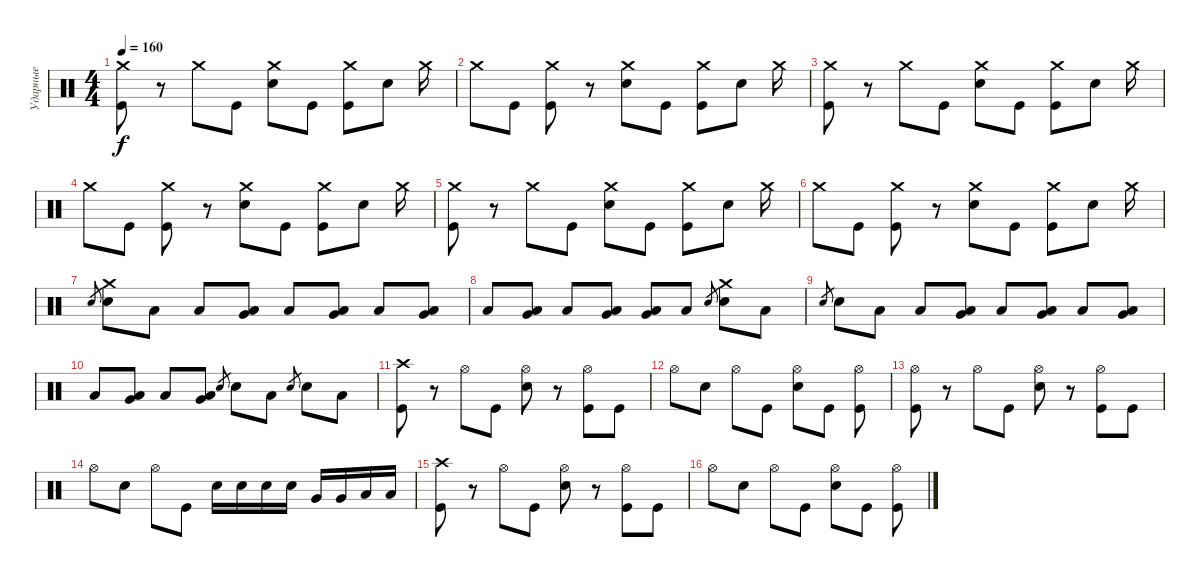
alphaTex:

\track ("Ударные" "Ударные") {instrument percussion}
\staff {score}
\articulation defaults
\ts (4 4)
\tempo 160
\clef neutral
\ks c
("Crash medium (hit)" "Kick (hit)").8{dy f} r.8 "Crash medium (hit)".8 "Kick (hit)".8 ("Crash medium (hit)" "Electric Snare (hit)").8 "Kick (hit)".8 ("Crash medium (hit)" "Kick (hit)").8 "Electric Snare (hit)".8 "Crash medium (hit)".16 |
"Crash medium (hit)".8 "Kick (hit)".8 ("Crash medium (hit)" "Kick (hit)").8 r.8 ("Crash medium (hit)" "Electric Snare (hit)").8 "Kick (hit)".8 ("Crash medium (hit)" "Kick (hit)").8 "Electric Snare (hit)".8 "Crash medium (hit)".16 |
("Crash medium (hit)" "Kick (hit)").8 r.8 "Crash medium (hit)".8 "Kick (hit)".8 ("Crash medium (hit)" "Electric Snare (hit)").8 "Kick (hit)".8 ("Crash medium (hit)" "Kick (hit)").8 "Electric Snare (hit)".8 "Crash medium (hit)".16 |
"Crash medium (hit)".8 "Kick (hit)".8 ("Crash medium (hit)" "Kick (hit)").8 r.8 ("Crash medium (hit)" "Electric Snare (hit)").8 "Kick (hit)".8 ("Crash medium (hit)" "Kick (hit)").8 "Electric Snare (hit)".8 "Crash medium (hit)".16 |
("Crash medium (hit)" "Kick (hit)").8 r.8 "Crash medium (hit)".8 "Kick (hit)".8 ("Crash medium (hit)" "Electric Snare (hit)").8 "Kick (hit)".8 ("Crash medium (hit)" "Kick (hit)").8 "Electric Snare (hit)".8 "Crash medium (hit)".16 |
"Crash medium (hit)".8 "Kick (hit)".8 ("Crash medium (hit)" "Kick (hit)").8 r.8 ("Crash medium (hit)" "Electric Snare (hit)").8 "Kick (hit)".8 ("Crash medium (hit)" "Kick (hit)").8 "Electric Snare (hit)".8 "Crash medium (hit)".16 |
"Electric Snare (hit)".8{gr} ("Crash medium (hit)" "Electric Snare (hit)").8 "Low Floor Tom (hit)".8 "Low Floor Tom (hit)".8 ("Very Low Tom (hit)" "Low Floor Tom (hit)").8 "Low Floor Tom (hit)".8 ("Very Low Tom (hit)" "Low Floor Tom (hit)").8 "Low Floor Tom (hit)".8 ("Very Low Tom (hit)" "Low Floor Tom (hit)").8 |
"Low Floor Tom (hit)".8 ("Very Low Tom (hit)" "Low Floor Tom (hit)").8 "Low Floor Tom (hit)".8 ("Very Low Tom (hit)" "Low Floor Tom (hit)").8 ("Very Low Tom (hit)" "Low Floor Tom (hit)").8 "Low Floor Tom (hit)".8 "Electric Snare (hit)".8{gr} ("Crash medium (hit)" "Electric Snare (hit)").8 "Low Floor Tom (hit)".8 |
"Electric Snare (hit)".8{gr} "Electric Snare (hit)".8 "Low Floor Tom (hit)".8 "Low Floor Tom (hit)".8 ("Very Low Tom (hit)" "Low Floor Tom (hit)").8 "Low Floor Tom (hit)".8 ("Very Low Tom (hit)" "Low Floor Tom (hit)").8 "Low Floor Tom (hit)".8 ("Very Low Tom (hit)" "Low Floor Tom (hit)").8 |
"Low Floor Tom (hit)".8 ("Very Low Tom (hit)" "Low Floor Tom (hit)").8 "Low Floor Tom (hit)".8 ("Very Low Tom (hit)" "Low Floor Tom (hit)").8 "Electric Snare (hit)".8{gr} "Electric Snare (hit)".8 "Low Floor Tom (hit)".8 "Electric Snare (hit)".8{gr} "Electric Snare (hit)".8 "Low Floor Tom (hit)".8 |
("Crash high (hit)" "Kick (hit)").8 r.8 "Hi-Hat (open)".8 "Kick (hit)".8 ("Hi-Hat (open)" "Electric Snare (hit)").8 r.8 ("Hi-Hat (open)" "Kick (hit)").8 "Kick (hit)".8 |
"Hi-Hat (open)".8 "Electric Snare (hit)".8 "Hi-Hat (open)".8 "Kick (hit)".8 ("Hi-Hat (open)" "Electric Snare (hit)").8 "Kick (hit)".8 ("Hi-Hat (open)" "Kick (hit)").8 |
("Hi-Hat (open)" "Kick (hit)").8 r.8 "Hi-Hat (open)".8 "Kick (hit)".8 ("Hi-Hat (open)" "Electric Snare (hit)").8 r.8 ("Hi-Hat (open)" "Kick (hit)").8 "Kick (hit)".8 |
"Hi-Hat (open)".8 "Electric Snare (hit)".8 "Hi-Hat (open)".8 "Kick (hit)".8 "Electric Snare (hit)".16 "Electric Snare (hit)".16 "Electric Snare (hit)".16 "Electric Snare (hit)".16 "Very Low Tom (hit)".16 "Very Low Tom (hit)".16 "Low Floor Tom (hit)".16 "Low Floor Tom (hit)".16 |
("Crash high (hit)" "Kick (hit)").8 r.8 "Hi-Hat (open)".8 "Kick (hit)".8 ("Hi-Hat (open)" "Electric Snare (hit)").8 r.8 ("Hi-Hat (open)" "Kick (hit)").8 "Kick (hit)".8 |
"Hi-Hat (open)".8 "Electric Snare (hit)".8 "Hi-Hat (open)".8 "Kick (hit)".8 ("Hi-Hat (open)" "Electric Snare (hit)").8 "Kick (hit)".8 ("Hi-Hat (open)" "Kick (hit)").8
